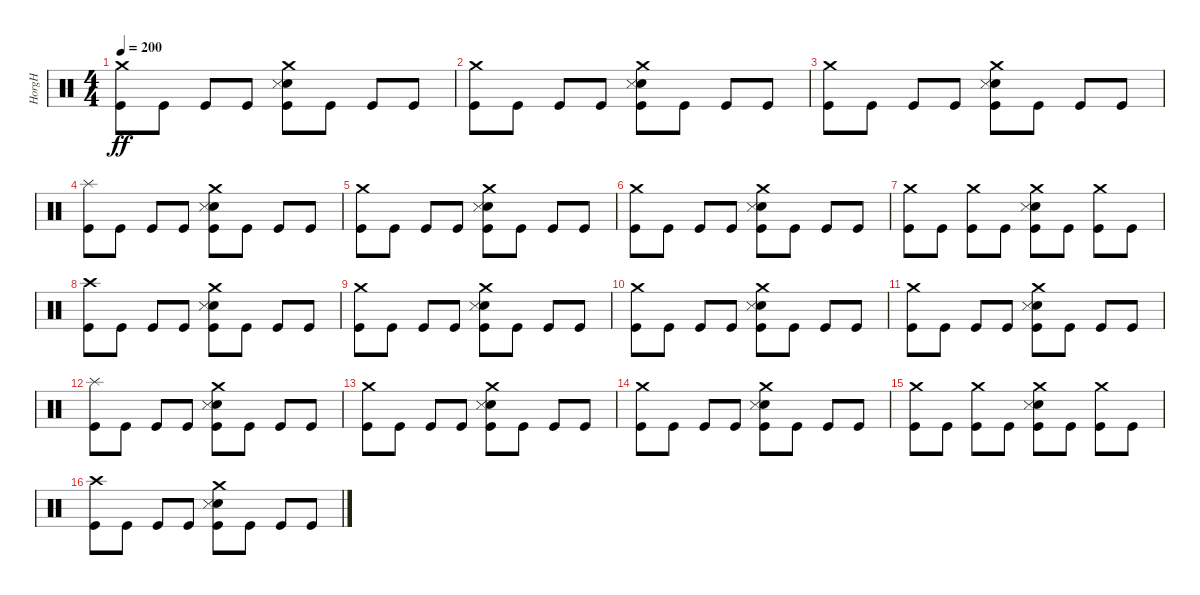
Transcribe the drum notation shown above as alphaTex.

\track ("HorgH" "HorgH") {instrument percussion}
\staff {score}
\articulation defaults
\ts (4 4)
\tempo 200
\clef neutral
\ks c
("Crash medium (hit)" "Kick (hit)").8{dy ff} "Kick (hit)".8 "Kick (hit)".8 "Kick (hit)".8 ("Crash medium (hit)" "Electric Snare (hit)" "Snare (side stick) 3" "Kick (hit)").8 "Kick (hit)".8 "Kick (hit)".8 "Kick (hit)".8 |
("Crash medium (hit)" "Kick (hit)").8 "Kick (hit)".8 "Kick (hit)".8 "Kick (hit)".8 ("Crash medium (hit)" "Electric Snare (hit)" "Snare (side stick) 3" "Kick (hit)").8 "Kick (hit)".8 "Kick (hit)".8 "Kick (hit)".8 |
("Crash medium (hit)" "Kick (hit)").8 "Kick (hit)".8 "Kick (hit)".8 "Kick (hit)".8 ("Crash medium (hit)" "Electric Snare (hit)" "Snare (side stick) 3" "Kick (hit)").8 "Kick (hit)".8 "Kick (hit)".8 "Kick (hit)".8 |
("Splash (hit)" "Kick (hit)").8 "Kick (hit)".8 "Kick (hit)".8 "Kick (hit)".8 ("Crash medium (hit)" "Electric Snare (hit)" "Snare (side stick) 3" "Kick (hit)").8 "Kick (hit)".8 "Kick (hit)".8 "Kick (hit)".8 |
("Crash medium (hit)" "Kick (hit)").8 "Kick (hit)".8 "Kick (hit)".8 "Kick (hit)".8 ("Crash medium (hit)" "Electric Snare (hit)" "Snare (side stick) 3" "Kick (hit)").8 "Kick (hit)".8 "Kick (hit)".8 "Kick (hit)".8 |
("Crash medium (hit)" "Kick (hit)").8 "Kick (hit)".8 "Kick (hit)".8 "Kick (hit)".8 ("Crash medium (hit)" "Electric Snare (hit)" "Snare (side stick) 3" "Kick (hit)").8 "Kick (hit)".8 "Kick (hit)".8 "Kick (hit)".8 |
("Crash medium (hit)" "Kick (hit)").8 "Kick (hit)".8 ("Crash medium (hit)" "Kick (hit)").8 "Kick (hit)".8 ("Crash medium (hit)" "Electric Snare (hit)" "Snare (side stick) 3" "Kick (hit)").8 "Kick (hit)".8 ("Crash medium (hit)" "Kick (hit)").8 "Kick (hit)".8 |
("Crash high (hit)" "Kick (hit)").8 "Kick (hit)".8 "Kick (hit)".8 "Kick (hit)".8 ("Crash medium (hit)" "Electric Snare (hit)" "Snare (side stick) 3" "Kick (hit)").8 "Kick (hit)".8 "Kick (hit)".8 "Kick (hit)".8 |
("Crash medium (hit)" "Kick (hit)").8 "Kick (hit)".8 "Kick (hit)".8 "Kick (hit)".8 ("Crash medium (hit)" "Electric Snare (hit)" "Snare (side stick) 3" "Kick (hit)").8 "Kick (hit)".8 "Kick (hit)".8 "Kick (hit)".8 |
("Crash medium (hit)" "Kick (hit)").8 "Kick (hit)".8 "Kick (hit)".8 "Kick (hit)".8 ("Crash medium (hit)" "Electric Snare (hit)" "Snare (side stick) 3" "Kick (hit)").8 "Kick (hit)".8 "Kick (hit)".8 "Kick (hit)".8 |
("Crash medium (hit)" "Kick (hit)").8 "Kick (hit)".8 "Kick (hit)".8 "Kick (hit)".8 ("Crash medium (hit)" "Electric Snare (hit)" "Snare (side stick) 3" "Kick (hit)").8 "Kick (hit)".8 "Kick (hit)".8 "Kick (hit)".8 |
("Splash (hit)" "Kick (hit)").8 "Kick (hit)".8 "Kick (hit)".8 "Kick (hit)".8 ("Crash medium (hit)" "Electric Snare (hit)" "Snare (side stick) 3" "Kick (hit)").8 "Kick (hit)".8 "Kick (hit)".8 "Kick (hit)".8 |
("Crash medium (hit)" "Kick (hit)").8 "Kick (hit)".8 "Kick (hit)".8 "Kick (hit)".8 ("Crash medium (hit)" "Electric Snare (hit)" "Snare (side stick) 3" "Kick (hit)").8 "Kick (hit)".8 "Kick (hit)".8 "Kick (hit)".8 |
("Crash medium (hit)" "Kick (hit)").8 "Kick (hit)".8 "Kick (hit)".8 "Kick (hit)".8 ("Crash medium (hit)" "Electric Snare (hit)" "Snare (side stick) 3" "Kick (hit)").8 "Kick (hit)".8 "Kick (hit)".8 "Kick (hit)".8 |
("Crash medium (hit)" "Kick (hit)").8 "Kick (hit)".8 ("Crash medium (hit)" "Kick (hit)").8 "Kick (hit)".8 ("Crash medium (hit)" "Electric Snare (hit)" "Snare (side stick) 3" "Kick (hit)").8 "Kick (hit)".8 ("Crash medium (hit)" "Kick (hit)").8 "Kick (hit)".8 |
("Crash high (hit)" "Kick (hit)").8 "Kick (hit)".8 "Kick (hit)".8 "Kick (hit)".8 ("Crash medium (hit)" "Electric Snare (hit)" "Snare (side stick) 3" "Kick (hit)").8 "Kick (hit)".8 "Kick (hit)".8 "Kick (hit)".8
